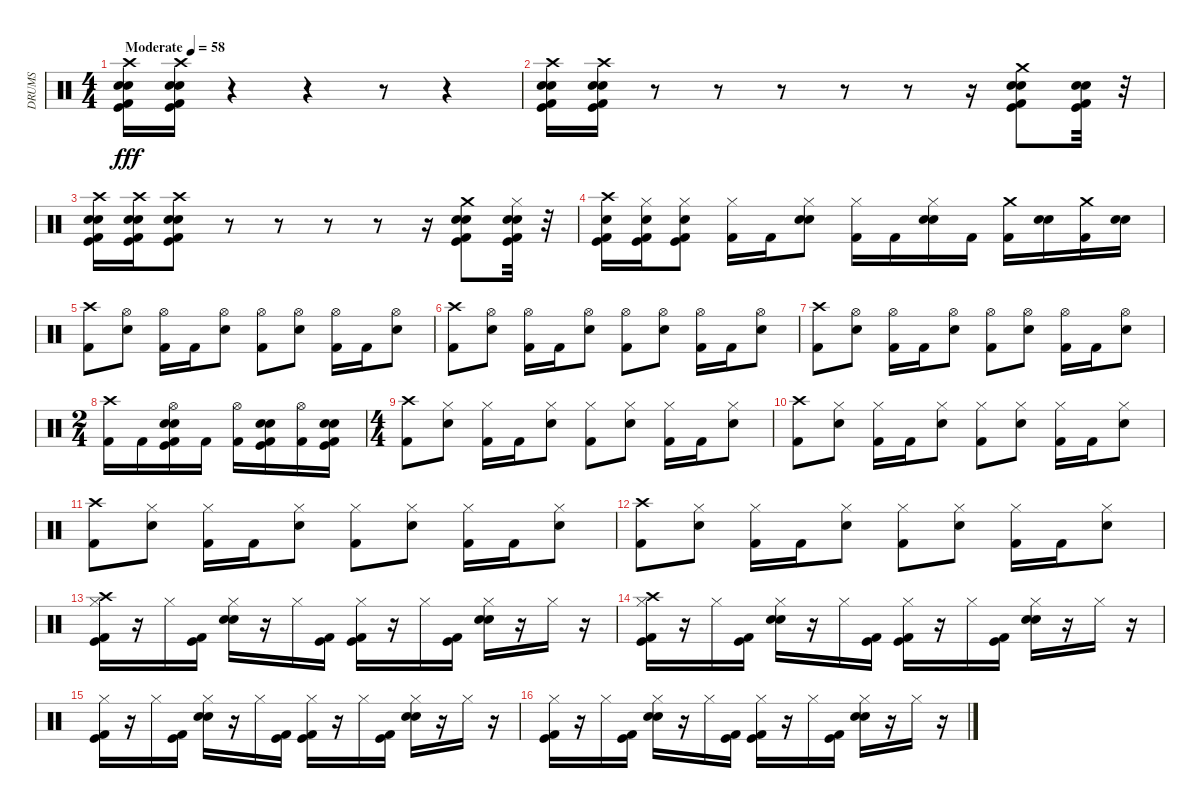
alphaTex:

\track ("DRUMS" "DRUMS") {instrument percussion}
\staff {score}
\articulation defaults
\ts (4 4)
\tempo (58 "Moderate")
\clef neutral
\ks c
("Crash high (hit)" "Kick (hit)" "Kick (hit) 2" "Electric Snare (hit)" "Snare (hit) 2").16{dy fff} ("Crash high (hit)" "Kick (hit)" "Kick (hit) 2" "Electric Snare (hit)" "Snare (hit) 2").16 r.4 r.4 r.8 r.4 |
("Crash high (hit)" "Kick (hit)" "Kick (hit) 2" "Electric Snare (hit)" "Snare (hit) 2").16 ("Crash high (hit)" "Kick (hit)" "Kick (hit) 2" "Electric Snare (hit)" "Snare (hit) 2").16 r.8 r.8 r.8 r.8 r.8 r.16 ("Crash medium (hit)" "Kick (hit)" "Kick (hit) 2" "Electric Snare (hit)" "Snare (hit) 2").8 ("Kick (hit)" "Kick (hit) 2" "Electric Snare (hit)" "Snare (hit) 2").32 r.32 |
("Crash high (hit)" "Kick (hit)" "Kick (hit) 2" "Electric Snare (hit)" "Snare (hit) 2").16 ("Crash high (hit)" "Kick (hit)" "Kick (hit) 2" "Electric Snare (hit)" "Snare (hit) 2").16 ("Crash high (hit)" "Kick (hit)" "Kick (hit) 2" "Electric Snare (hit)" "Snare (hit) 2").8 r.8 r.8 r.8 r.8 r.16 ("Crash medium (hit)" "Kick (hit)" "Kick (hit) 2" "Electric Snare (hit)" "Snare (hit) 2").8 ("Hi-Hat (closed)" "Kick (hit)" "Kick (hit) 2" "Electric Snare (hit)" "Snare (hit) 2").32 r.32 |
("Crash high (hit)" "Kick (hit)" "Kick (hit) 2" "Electric Snare (hit)").16 ("Hi-Hat (closed)" "Kick (hit)" "Kick (hit) 2" "Electric Snare (hit)").16 ("Hi-Hat (closed)" "Kick (hit)" "Kick (hit) 2" "Electric Snare (hit)").8 ("Hi-Hat (closed)" "Kick (hit) 2").16 "Kick (hit) 2".16 ("Hi-Hat (closed)" "Electric Snare (hit)" "Snare (hit) 2").8 ("Hi-Hat (closed)" "Kick (hit) 2").16 "Kick (hit) 2".16 ("Hi-Hat (closed)" "Electric Snare (hit)" "Snare (hit) 2").16 "Kick (hit) 2".16 ("Crash medium (hit)" "Kick (hit) 2").16 ("Electric Snare (hit)" "Snare (hit) 2").16 ("Crash medium (hit)" "Kick (hit) 2").16 ("Electric Snare (hit)" "Snare (hit) 2").16 |
("Crash high (hit)" "Kick (hit) 2").8 ("Hi-Hat (open)" "Electric Snare (hit)").8 ("Hi-Hat (open)" "Kick (hit) 2").16 "Kick (hit) 2".16 ("Hi-Hat (open)" "Electric Snare (hit)").8 ("Hi-Hat (open)" "Kick (hit) 2").8 ("Hi-Hat (open)" "Electric Snare (hit)").8 ("Hi-Hat (open)" "Kick (hit) 2").16 "Kick (hit) 2".16 ("Hi-Hat (open)" "Electric Snare (hit)").8 |
("Crash high (hit)" "Kick (hit) 2").8 ("Hi-Hat (open)" "Electric Snare (hit)").8 ("Hi-Hat (open)" "Kick (hit) 2").16 "Kick (hit) 2".16 ("Hi-Hat (open)" "Electric Snare (hit)").8 ("Hi-Hat (open)" "Kick (hit) 2").8 ("Hi-Hat (open)" "Electric Snare (hit)").8 ("Hi-Hat (open)" "Kick (hit) 2").16 "Kick (hit) 2".16 ("Hi-Hat (open)" "Electric Snare (hit)").8 |
("Crash high (hit)" "Kick (hit) 2").8 ("Hi-Hat (open)" "Electric Snare (hit)").8 ("Hi-Hat (open)" "Kick (hit) 2").16 "Kick (hit) 2".16 ("Hi-Hat (open)" "Electric Snare (hit)").8 ("Hi-Hat (open)" "Kick (hit) 2").8 ("Hi-Hat (open)" "Electric Snare (hit)").8 ("Hi-Hat (open)" "Kick (hit) 2").16 "Kick (hit) 2".16 ("Hi-Hat (open)" "Electric Snare (hit)").8 |
\ts (2 4)
("Crash high (hit)" "Kick (hit) 2").16 "Kick (hit) 2".16 ("Hi-Hat (open)" "Electric Snare (hit)" "Snare (hit) 2" "Kick (hit)" "Kick (hit) 2").16 "Kick (hit) 2".16 ("Hi-Hat (open)" "Kick (hit) 2").16 ("Electric Snare (hit)" "Snare (hit) 2" "Kick (hit)" "Kick (hit) 2").16 ("Hi-Hat (open)" "Kick (hit) 2").16 ("Electric Snare (hit)" "Snare (hit) 2" "Kick (hit)" "Kick (hit) 2").16 |
\ts (4 4)
("Crash high (hit)" "Kick (hit) 2").8 ("Hi-Hat (closed)" "Electric Snare (hit)").8 ("Hi-Hat (closed)" "Kick (hit) 2").16 "Kick (hit) 2".16 ("Hi-Hat (closed)" "Electric Snare (hit)").8 ("Hi-Hat (closed)" "Kick (hit) 2").8 ("Hi-Hat (closed)" "Electric Snare (hit)").8 ("Hi-Hat (closed)" "Kick (hit) 2").16 "Kick (hit) 2".16 ("Hi-Hat (closed)" "Electric Snare (hit)").8 |
("Crash high (hit)" "Kick (hit) 2").8 ("Hi-Hat (closed)" "Electric Snare (hit)").8 ("Hi-Hat (closed)" "Kick (hit) 2").16 "Kick (hit) 2".16 ("Hi-Hat (closed)" "Electric Snare (hit)").8 ("Hi-Hat (closed)" "Kick (hit) 2").8 ("Hi-Hat (closed)" "Electric Snare (hit)").8 ("Hi-Hat (closed)" "Kick (hit) 2").16 "Kick (hit) 2".16 ("Hi-Hat (closed)" "Electric Snare (hit)").8 |
("Crash high (hit)" "Kick (hit) 2").8 ("Hi-Hat (closed)" "Electric Snare (hit)").8 ("Hi-Hat (closed)" "Kick (hit) 2").16 "Kick (hit) 2".16 ("Hi-Hat (closed)" "Electric Snare (hit)").8 ("Hi-Hat (closed)" "Kick (hit) 2").8 ("Hi-Hat (closed)" "Electric Snare (hit)").8 ("Hi-Hat (closed)" "Kick (hit) 2").16 "Kick (hit) 2".16 ("Hi-Hat (closed)" "Electric Snare (hit)").8 |
("Crash high (hit)" "Kick (hit) 2").8 ("Hi-Hat (closed)" "Electric Snare (hit)").8 ("Hi-Hat (closed)" "Kick (hit) 2").16 "Kick (hit) 2".16 ("Hi-Hat (closed)" "Electric Snare (hit)").8 ("Hi-Hat (closed)" "Kick (hit) 2").8 ("Hi-Hat (closed)" "Electric Snare (hit)").8 ("Hi-Hat (closed)" "Kick (hit) 2").16 "Kick (hit) 2".16 ("Hi-Hat (closed)" "Electric Snare (hit)").8 |
("Kick (hit) 2" "Hi-Hat (closed)" "Kick (hit)" "Crash high (hit)").16 r.16 "Hi-Hat (closed)".16 ("Kick (hit) 2" "Kick (hit)").16 ("Electric Snare (hit)" "Hi-Hat (closed)" "Snare (hit) 2").16 r.16 "Hi-Hat (closed)".16 ("Kick (hit) 2" "Kick (hit)").16 ("Kick (hit) 2" "Hi-Hat (closed)" "Kick (hit)").16 r.16 "Hi-Hat (closed)".16 ("Kick (hit) 2" "Kick (hit)").16 ("Electric Snare (hit)" "Hi-Hat (closed)" "Snare (hit) 2").16 r.16 "Hi-Hat (closed)".16 r.16 |
("Kick (hit) 2" "Hi-Hat (closed)" "Kick (hit)" "Crash high (hit)").16 r.16 "Hi-Hat (closed)".16 ("Kick (hit) 2" "Kick (hit)").16 ("Electric Snare (hit)" "Hi-Hat (closed)" "Snare (hit) 2").16 r.16 "Hi-Hat (closed)".16 ("Kick (hit) 2" "Kick (hit)").16 ("Kick (hit) 2" "Hi-Hat (closed)" "Kick (hit)").16 r.16 "Hi-Hat (closed)".16 ("Kick (hit) 2" "Kick (hit)").16 ("Electric Snare (hit)" "Hi-Hat (closed)" "Snare (hit) 2").16 r.16 "Hi-Hat (closed)".16 r.16 |
("Kick (hit) 2" "Hi-Hat (closed)" "Kick (hit)").16 r.16 "Hi-Hat (closed)".16 ("Kick (hit) 2" "Kick (hit)").16 ("Electric Snare (hit)" "Hi-Hat (closed)" "Snare (hit) 2").16 r.16 "Hi-Hat (closed)".16 ("Kick (hit) 2" "Kick (hit)").16 ("Kick (hit) 2" "Hi-Hat (closed)" "Kick (hit)").16 r.16 "Hi-Hat (closed)".16 ("Kick (hit) 2" "Kick (hit)").16 ("Electric Snare (hit)" "Hi-Hat (closed)" "Snare (hit) 2").16 r.16 "Hi-Hat (closed)".16 r.16 |
("Kick (hit) 2" "Hi-Hat (closed)" "Kick (hit)").16 r.16 "Hi-Hat (closed)".16 ("Kick (hit) 2" "Kick (hit)").16 ("Electric Snare (hit)" "Hi-Hat (closed)" "Snare (hit) 2").16 r.16 "Hi-Hat (closed)".16 ("Kick (hit) 2" "Kick (hit)").16 ("Kick (hit) 2" "Hi-Hat (closed)" "Kick (hit)").16 r.16 "Hi-Hat (closed)".16 ("Kick (hit) 2" "Kick (hit)").16 ("Electric Snare (hit)" "Hi-Hat (closed)" "Snare (hit) 2").16 r.16 "Hi-Hat (closed)".16 r.16
